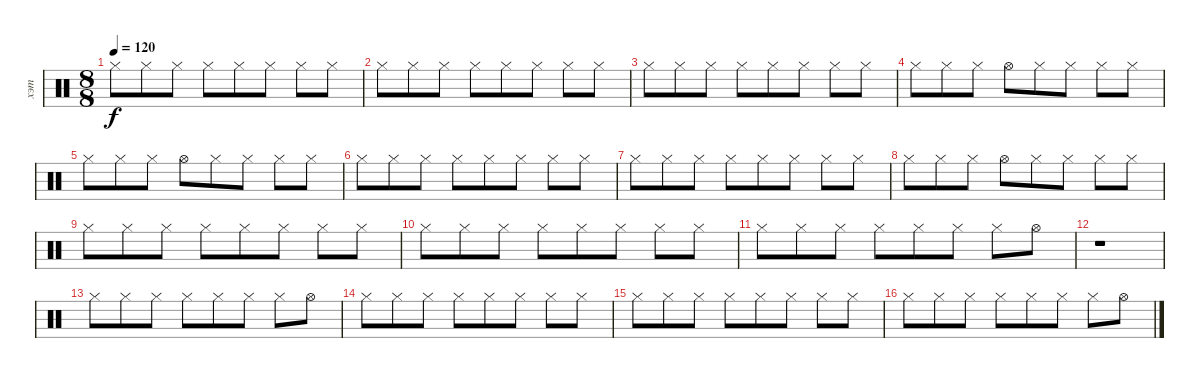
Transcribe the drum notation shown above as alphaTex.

\track ("хэт" "хэт") {instrument percussion}
\staff {score}
\articulation defaults
\ts (8 8)
\tempo 120
\clef neutral
\ks c "Hi-Hat (closed)".8{dy f} "Hi-Hat (closed)".8 "Hi-Hat (closed)".8 "Hi-Hat (closed)".8 "Hi-Hat (closed)".8 "Hi-Hat (closed)".8 "Hi-Hat (closed)".8 "Hi-Hat (closed)".8
|
"Hi-Hat (closed)".8 "Hi-Hat (closed)".8 "Hi-Hat (closed)".8 "Hi-Hat (closed)".8 "Hi-Hat (closed)".8 "Hi-Hat (closed)".8 "Hi-Hat (closed)".8 "Hi-Hat (closed)".8 |
"Hi-Hat (closed)".8 "Hi-Hat (closed)".8 "Hi-Hat (closed)".8 "Hi-Hat (closed)".8 "Hi-Hat (closed)".8 "Hi-Hat (closed)".8 "Hi-Hat (closed)".8 "Hi-Hat (closed)".8 |
"Hi-Hat (closed)".8 "Hi-Hat (closed)".8 "Hi-Hat (closed)".8 "Hi-Hat (open)".8 "Hi-Hat (closed)".8 "Hi-Hat (closed)".8 "Hi-Hat (closed)".8 "Hi-Hat (closed)".8 |
"Hi-Hat (closed)".8 "Hi-Hat (closed)".8 "Hi-Hat (closed)".8 "Hi-Hat (open)".8 "Hi-Hat (closed)".8 "Hi-Hat (closed)".8 "Hi-Hat (closed)".8 "Hi-Hat (closed)".8 |
"Hi-Hat (closed)".8 "Hi-Hat (closed)".8 "Hi-Hat (closed)".8 "Hi-Hat (closed)".8 "Hi-Hat (closed)".8 "Hi-Hat (closed)".8 "Hi-Hat (closed)".8 "Hi-Hat (closed)".8 |
"Hi-Hat (closed)".8 "Hi-Hat (closed)".8 "Hi-Hat (closed)".8 "Hi-Hat (closed)".8 "Hi-Hat (closed)".8 "Hi-Hat (closed)".8 "Hi-Hat (closed)".8 "Hi-Hat (closed)".8 |
"Hi-Hat (closed)".8 "Hi-Hat (closed)".8 "Hi-Hat (closed)".8 "Hi-Hat (open)".8 "Hi-Hat (closed)".8 "Hi-Hat (closed)".8 "Hi-Hat (closed)".8 "Hi-Hat (closed)".8 |
"Hi-Hat (closed)".8 "Hi-Hat (closed)".8 "Hi-Hat (closed)".8 "Hi-Hat (closed)".8 "Hi-Hat (closed)".8 "Hi-Hat (closed)".8 "Hi-Hat (closed)".8 "Hi-Hat (closed)".8 |
"Hi-Hat (closed)".8 "Hi-Hat (closed)".8 "Hi-Hat (closed)".8 "Hi-Hat (closed)".8 "Hi-Hat (closed)".8 "Hi-Hat (closed)".8 "Hi-Hat (closed)".8 "Hi-Hat (closed)".8 |
"Hi-Hat (closed)".8 "Hi-Hat (closed)".8 "Hi-Hat (closed)".8 "Hi-Hat (closed)".8 "Hi-Hat (closed)".8 "Hi-Hat (closed)".8 "Hi-Hat (closed)".8 "Hi-Hat (open)".8 |
r.1 |
"Hi-Hat (closed)".8 "Hi-Hat (closed)".8 "Hi-Hat (closed)".8 "Hi-Hat (closed)".8 "Hi-Hat (closed)".8 "Hi-Hat (closed)".8 "Hi-Hat (closed)".8 "Hi-Hat (open)".8 |
"Hi-Hat (closed)".8 "Hi-Hat (closed)".8 "Hi-Hat (closed)".8 "Hi-Hat (closed)".8 "Hi-Hat (closed)".8 "Hi-Hat (closed)".8 "Hi-Hat (closed)".8 "Hi-Hat (closed)".8 |
"Hi-Hat (closed)".8 "Hi-Hat (closed)".8 "Hi-Hat (closed)".8 "Hi-Hat (closed)".8 "Hi-Hat (closed)".8 "Hi-Hat (closed)".8 "Hi-Hat (closed)".8 "Hi-Hat (closed)".8 |
"Hi-Hat (closed)".8 "Hi-Hat (closed)".8 "Hi-Hat (closed)".8 "Hi-Hat (closed)".8 "Hi-Hat (closed)".8 "Hi-Hat (closed)".8 "Hi-Hat (closed)".8 "Hi-Hat (open)".8
